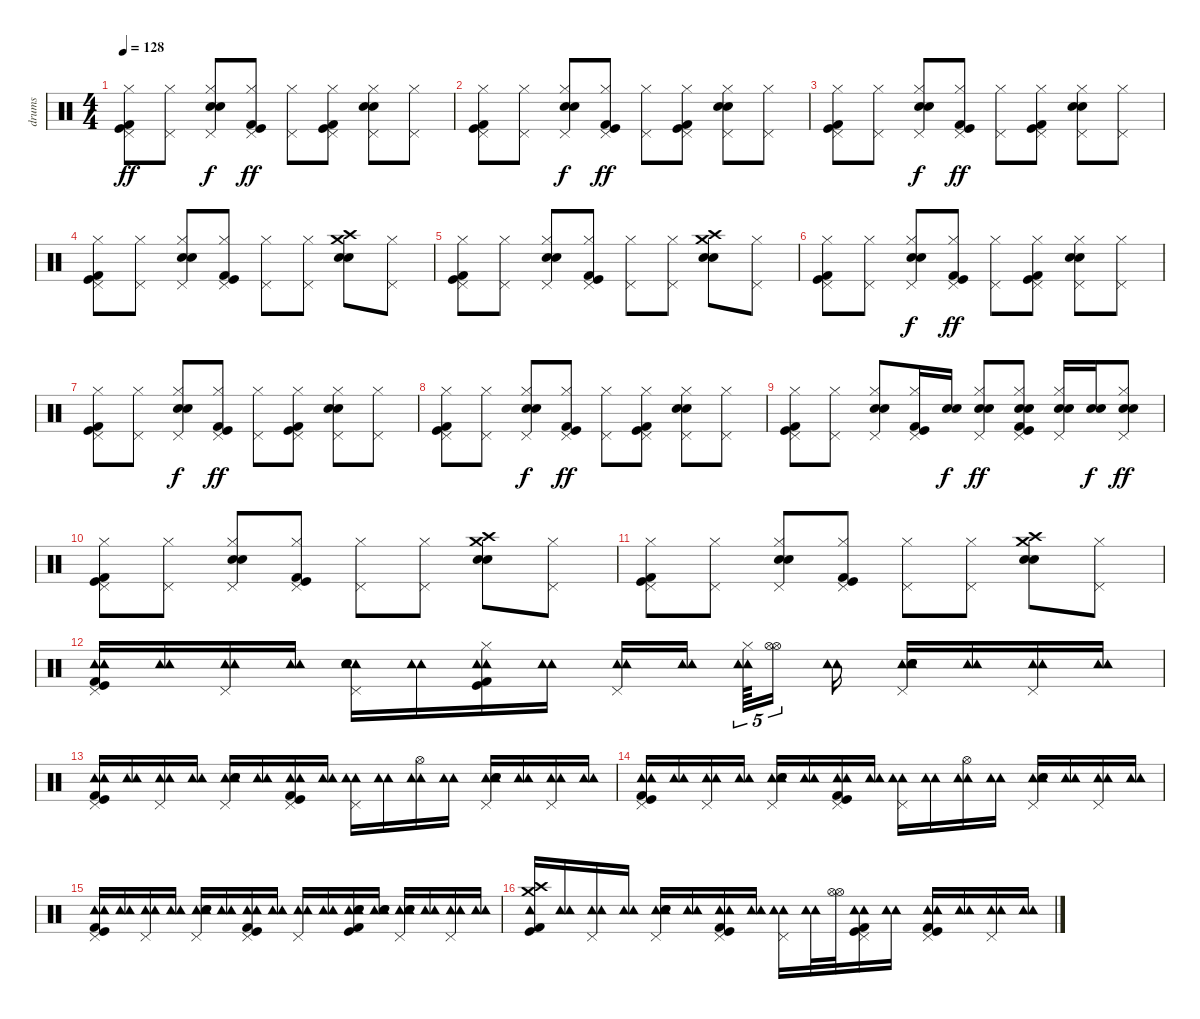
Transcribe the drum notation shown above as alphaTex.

\track ("drums" "drums") {instrument percussion}
\staff {score}
\articulation defaults
\ts (4 4)
\tempo 128
\clef neutral
\ks c
("Pedal Hi-Hat (hit)" "Hi-Hat (closed)" "Kick (hit)" "Kick (hit) 2").8{dy ff} ("Hi-Hat (closed)" "Pedal Hi-Hat (hit)").8 ("Hi-Hat (closed)" "Pedal Hi-Hat (hit)" "Snare (hit) 2" "Snare (hit) 2").8{dy f} ("Pedal Hi-Hat (hit)" "Hi-Hat (closed)" "Kick (hit)" "Kick (hit) 2").8{dy ff} ("Hi-Hat (closed)" "Pedal Hi-Hat (hit)").8 ("Pedal Hi-Hat (hit)" "Hi-Hat (closed)" "Kick (hit)" "Kick (hit) 2").8 ("Pedal Hi-Hat (hit)" "Hi-Hat (closed)" "Snare (hit) 2" "Snare (hit) 2").8 ("Hi-Hat (closed)" "Pedal Hi-Hat (hit)").8 |
("Pedal Hi-Hat (hit)" "Hi-Hat (closed)" "Kick (hit)" "Kick (hit) 2").8 ("Hi-Hat (closed)" "Pedal Hi-Hat (hit)").8 ("Hi-Hat (closed)" "Pedal Hi-Hat (hit)" "Snare (hit) 2" "Snare (hit) 2").8{dy f} ("Pedal Hi-Hat (hit)" "Hi-Hat (closed)" "Kick (hit)" "Kick (hit) 2").8{dy ff} ("Hi-Hat (closed)" "Pedal Hi-Hat (hit)").8 ("Pedal Hi-Hat (hit)" "Hi-Hat (closed)" "Kick (hit)" "Kick (hit) 2").8 ("Pedal Hi-Hat (hit)" "Hi-Hat (closed)" "Snare (hit) 2" "Snare (hit) 2").8 ("Hi-Hat (closed)" "Pedal Hi-Hat (hit)").8 |
("Pedal Hi-Hat (hit)" "Hi-Hat (closed)" "Kick (hit)" "Kick (hit) 2").8 ("Hi-Hat (closed)" "Pedal Hi-Hat (hit)").8 ("Hi-Hat (closed)" "Pedal Hi-Hat (hit)" "Snare (hit) 2" "Snare (hit) 2").8{dy f} ("Pedal Hi-Hat (hit)" "Hi-Hat (closed)" "Kick (hit)" "Kick (hit) 2").8{dy ff} ("Hi-Hat (closed)" "Pedal Hi-Hat (hit)").8 ("Pedal Hi-Hat (hit)" "Hi-Hat (closed)" "Kick (hit)" "Kick (hit) 2").8 ("Pedal Hi-Hat (hit)" "Hi-Hat (closed)" "Snare (hit) 2" "Snare (hit) 2").8 ("Hi-Hat (closed)" "Pedal Hi-Hat (hit)").8 |
("Hi-Hat (closed)" "Pedal Hi-Hat (hit)" "Kick (hit)" "Kick (hit) 2").8 ("Hi-Hat (closed)" "Pedal Hi-Hat (hit)").8 ("Pedal Hi-Hat (hit)" "Hi-Hat (closed)" "Snare (hit) 2" "Snare (hit) 2").8 ("Pedal Hi-Hat (hit)" "Hi-Hat (closed)" "Kick (hit)" "Kick (hit) 2").8 ("Hi-Hat (closed)" "Pedal Hi-Hat (hit)").8 ("Hi-Hat (closed)" "Pedal Hi-Hat (hit)").8 ("Crash medium (hit)" "Crash high (hit)" "Snare (hit) 2" "Snare (hit) 2").8 ("Hi-Hat (closed)" "Pedal Hi-Hat (hit)").8 |
("Hi-Hat (closed)" "Pedal Hi-Hat (hit)" "Kick (hit)" "Kick (hit) 2").8 ("Hi-Hat (closed)" "Pedal Hi-Hat (hit)").8 ("Hi-Hat (closed)" "Pedal Hi-Hat (hit)" "Snare (hit) 2" "Snare (hit) 2").8 ("Pedal Hi-Hat (hit)" "Hi-Hat (closed)" "Kick (hit)" "Kick (hit) 2").8 ("Hi-Hat (closed)" "Pedal Hi-Hat (hit)").8 ("Hi-Hat (closed)" "Pedal Hi-Hat (hit)").8 ("Crash medium (hit)" "Crash high (hit)" "Snare (hit) 2" "Snare (hit) 2").8 ("Hi-Hat (closed)" "Pedal Hi-Hat (hit)").8 |
("Pedal Hi-Hat (hit)" "Hi-Hat (closed)" "Kick (hit)" "Kick (hit) 2").8 ("Hi-Hat (closed)" "Pedal Hi-Hat (hit)").8 ("Hi-Hat (closed)" "Pedal Hi-Hat (hit)" "Snare (hit) 2" "Snare (hit) 2").8{dy f} ("Pedal Hi-Hat (hit)" "Hi-Hat (closed)" "Kick (hit)" "Kick (hit) 2").8{dy ff} ("Hi-Hat (closed)" "Pedal Hi-Hat (hit)").8 ("Pedal Hi-Hat (hit)" "Hi-Hat (closed)" "Kick (hit)" "Kick (hit) 2").8 ("Pedal Hi-Hat (hit)" "Hi-Hat (closed)" "Snare (hit) 2" "Snare (hit) 2").8 ("Hi-Hat (closed)" "Pedal Hi-Hat (hit)").8 |
("Pedal Hi-Hat (hit)" "Hi-Hat (closed)" "Kick (hit)" "Kick (hit) 2").8 ("Hi-Hat (closed)" "Pedal Hi-Hat (hit)").8 ("Hi-Hat (closed)" "Pedal Hi-Hat (hit)" "Snare (hit) 2" "Snare (hit) 2").8{dy f} ("Pedal Hi-Hat (hit)" "Hi-Hat (closed)" "Kick (hit)" "Kick (hit) 2").8{dy ff} ("Hi-Hat (closed)" "Pedal Hi-Hat (hit)").8 ("Pedal Hi-Hat (hit)" "Hi-Hat (closed)" "Kick (hit)" "Kick (hit) 2").8 ("Pedal Hi-Hat (hit)" "Hi-Hat (closed)" "Snare (hit) 2" "Snare (hit) 2").8 ("Hi-Hat (closed)" "Pedal Hi-Hat (hit)").8 |
("Pedal Hi-Hat (hit)" "Hi-Hat (closed)" "Kick (hit)" "Kick (hit) 2").8 ("Hi-Hat (closed)" "Pedal Hi-Hat (hit)").8 ("Hi-Hat (closed)" "Pedal Hi-Hat (hit)" "Snare (hit) 2" "Snare (hit) 2").8{dy f} ("Pedal Hi-Hat (hit)" "Hi-Hat (closed)" "Kick (hit)" "Kick (hit) 2").8{dy ff} ("Hi-Hat (closed)" "Pedal Hi-Hat (hit)").8 ("Pedal Hi-Hat (hit)" "Hi-Hat (closed)" "Kick (hit)" "Kick (hit) 2").8 ("Pedal Hi-Hat (hit)" "Hi-Hat (closed)" "Snare (hit) 2" "Snare (hit) 2").8 ("Hi-Hat (closed)" "Pedal Hi-Hat (hit)").8 |
("Pedal Hi-Hat (hit)" "Hi-Hat (closed)" "Kick (hit)" "Kick (hit) 2").8 ("Hi-Hat (closed)" "Pedal Hi-Hat (hit)").8 ("Pedal Hi-Hat (hit)" "Hi-Hat (closed)" "Snare (hit) 2" "Snare (hit) 2").8 ("Pedal Hi-Hat (hit)" "Hi-Hat (closed)" "Kick (hit)" "Kick (hit) 2").16 ("Snare (hit) 2" "Snare (hit) 2").16{dy f} ("Pedal Hi-Hat (hit)" "Hi-Hat (closed)" "Snare (hit) 2" "Snare (hit) 2").8{dy ff} ("Pedal Hi-Hat (hit)" "Hi-Hat (closed)" "Snare (hit) 2" "Snare (hit) 2" "Kick (hit)" "Kick (hit) 2").8 ("Pedal Hi-Hat (hit)" "Hi-Hat (closed)" "Snare (hit) 2" "Snare (hit) 2").16 ("Snare (hit) 2" "Snare (hit) 2").16{dy f} ("Hi-Hat (closed)" "Pedal Hi-Hat (hit)" "Snare (hit) 2" "Snare (hit) 2").8{dy ff} |
("Pedal Hi-Hat (hit)" "Hi-Hat (closed)" "Kick (hit)" "Kick (hit) 2").8 ("Hi-Hat (closed)" "Pedal Hi-Hat (hit)").8 ("Pedal Hi-Hat (hit)" "Hi-Hat (closed)" "Snare (hit) 2" "Snare (hit) 2").8 ("Pedal Hi-Hat (hit)" "Hi-Hat (closed)" "Kick (hit)" "Kick (hit) 2").8 ("Hi-Hat (closed)" "Pedal Hi-Hat (hit)").8 ("Hi-Hat (closed)" "Pedal Hi-Hat (hit)").8 ("Crash medium (hit)" "Crash high (hit)" "Snare (hit) 2" "Snare (hit) 2").8 ("Hi-Hat (closed)" "Pedal Hi-Hat (hit)").8 |
("Hi-Hat (closed)" "Pedal Hi-Hat (hit)" "Kick (hit)" "Kick (hit) 2").8 ("Hi-Hat (closed)" "Pedal Hi-Hat (hit)").8 ("Pedal Hi-Hat (hit)" "Hi-Hat (closed)" "Snare (hit) 2" "Snare (hit) 2").8 ("Pedal Hi-Hat (hit)" "Hi-Hat (closed)" "Kick (hit)" "Kick (hit) 2").8 ("Hi-Hat (closed)" "Pedal Hi-Hat (hit)").8 ("Hi-Hat (closed)" "Pedal Hi-Hat (hit)").8 ("Crash medium (hit)" "Crash high (hit)" "Snare (hit) 2" "Snare (hit) 2").8 ("Hi-Hat (closed)" "Pedal Hi-Hat (hit)").8 |
("Tambourine (hit)" "Tambourine (hit)" "Pedal Hi-Hat (hit)" "Kick (hit)" "Kick (hit) 2").16 ("Tambourine (hit)" "Tambourine (hit)").16 ("Tambourine (hit)" "Tambourine (hit)" "Pedal Hi-Hat (hit)").16 ("Tambourine (hit)" "Tambourine (hit)").16 ("Tambourine (hit)" "Tambourine (hit)" "Pedal Hi-Hat (hit)" "Snare (hit) 2" "Snare (hit) 2").16 ("Tambourine (hit)" "Tambourine (hit)").16 ("Tambourine (hit)" "Tambourine (hit)" "Hi-Hat (closed)" "Kick (hit)" "Kick (hit) 2").16 ("Tambourine (hit)" "Tambourine (hit)").16 ("Tambourine (hit)" "Tambourine (hit)" "Pedal Hi-Hat (hit)").16 ("Tambourine (hit)" "Tambourine (hit)").16 ("Tambourine (hit)" "Tambourine (hit)" "Hi-Hat (closed)").64{tu (5 4)} ("Hi-Hat (open)" "Hi-Hat (open)").16{tu (5 4)} ("Tambourine (hit)" "Tambourine (hit)").16 ("Tambourine (hit)" "Tambourine (hit)" "Pedal Hi-Hat (hit)" "Snare (hit) 2" "Snare (hit) 2").16 ("Tambourine (hit)" "Tambourine (hit)").16 ("Tambourine (hit)" "Tambourine (hit)" "Pedal Hi-Hat (hit)").16 ("Tambourine (hit)" "Tambourine (hit)").16 |
("Tambourine (hit)" "Tambourine (hit)" "Pedal Hi-Hat (hit)" "Kick (hit)" "Kick (hit) 2").16 ("Tambourine (hit)" "Tambourine (hit)").16 ("Tambourine (hit)" "Tambourine (hit)" "Pedal Hi-Hat (hit)").16 ("Tambourine (hit)" "Tambourine (hit)").16 ("Tambourine (hit)" "Tambourine (hit)" "Pedal Hi-Hat (hit)" "Snare (hit) 2" "Snare (hit) 2").16 ("Tambourine (hit)" "Tambourine (hit)").16 ("Tambourine (hit)" "Tambourine (hit)" "Pedal Hi-Hat (hit)" "Kick (hit)" "Kick (hit) 2").16 ("Tambourine (hit)" "Tambourine (hit)").16 ("Tambourine (hit)" "Tambourine (hit)" "Pedal Hi-Hat (hit)").16 ("Tambourine (hit)" "Tambourine (hit)").16 ("Tambourine (hit)" "Tambourine (hit)" "Hi-Hat (open)").16 ("Tambourine (hit)" "Tambourine (hit)").16 ("Tambourine (hit)" "Tambourine (hit)" "Pedal Hi-Hat (hit)" "Snare (hit) 2" "Snare (hit) 2").16 ("Tambourine (hit)" "Tambourine (hit)").16 ("Tambourine (hit)" "Tambourine (hit)" "Pedal Hi-Hat (hit)").16 ("Tambourine (hit)" "Tambourine (hit)").16 |
("Tambourine (hit)" "Tambourine (hit)" "Pedal Hi-Hat (hit)" "Kick (hit)" "Kick (hit) 2").16 ("Tambourine (hit)" "Tambourine (hit)").16 ("Tambourine (hit)" "Tambourine (hit)" "Pedal Hi-Hat (hit)").16 ("Tambourine (hit)" "Tambourine (hit)").16 ("Tambourine (hit)" "Tambourine (hit)" "Pedal Hi-Hat (hit)" "Snare (hit) 2" "Snare (hit) 2").16 ("Tambourine (hit)" "Tambourine (hit)").16 ("Tambourine (hit)" "Tambourine (hit)" "Pedal Hi-Hat (hit)" "Kick (hit)" "Kick (hit) 2").16 ("Tambourine (hit)" "Tambourine (hit)").16 ("Tambourine (hit)" "Tambourine (hit)" "Pedal Hi-Hat (hit)").16 ("Tambourine (hit)" "Tambourine (hit)").16 ("Tambourine (hit)" "Tambourine (hit)" "Hi-Hat (open)").16 ("Tambourine (hit)" "Tambourine (hit)").16 ("Tambourine (hit)" "Tambourine (hit)" "Pedal Hi-Hat (hit)" "Snare (hit) 2" "Snare (hit) 2").16 ("Tambourine (hit)" "Tambourine (hit)").16 ("Tambourine (hit)" "Tambourine (hit)" "Pedal Hi-Hat (hit)").16 ("Tambourine (hit)" "Tambourine (hit)").16 |
("Tambourine (hit)" "Tambourine (hit)" "Pedal Hi-Hat (hit)" "Kick (hit)" "Kick (hit) 2").16 ("Tambourine (hit)" "Tambourine (hit)").16 ("Tambourine (hit)" "Tambourine (hit)" "Pedal Hi-Hat (hit)").16 ("Tambourine (hit)" "Tambourine (hit)").16 ("Tambourine (hit)" "Tambourine (hit)" "Pedal Hi-Hat (hit)" "Snare (hit) 2" "Snare (hit) 2").16 ("Tambourine (hit)" "Tambourine (hit)").16 ("Pedal Hi-Hat (hit)" "Tambourine (hit)" "Tambourine (hit)" "Kick (hit)" "Kick (hit) 2").16 ("Tambourine (hit)" "Tambourine (hit)").16 ("Tambourine (hit)" "Tambourine (hit)" "Pedal Hi-Hat (hit)").16 ("Tambourine (hit)" "Tambourine (hit)").16 ("Tambourine (hit)" "Tambourine (hit)" "Snare (hit) 2" "Snare (hit) 2" "Kick (hit)" "Kick (hit) 2").16 ("Tambourine (hit)" "Tambourine (hit)" "Snare (hit) 2" "Snare (hit) 2").16 ("Tambourine (hit)" "Tambourine (hit)" "Pedal Hi-Hat (hit)" "Snare (hit) 2" "Snare (hit) 2").16 ("Tambourine (hit)" "Tambourine (hit)").16 ("Tambourine (hit)" "Tambourine (hit)" "Pedal Hi-Hat (hit)").16 ("Tambourine (hit)" "Tambourine (hit)").16 |
("Crash high (hit)" "Crash medium (hit)" "Tambourine (hit)" "Kick (hit)" "Kick (hit) 2").16 ("Tambourine (hit)" "Tambourine (hit)").16 ("Tambourine (hit)" "Tambourine (hit)" "Pedal Hi-Hat (hit)").16 ("Tambourine (hit)" "Tambourine (hit)").16 ("Tambourine (hit)" "Tambourine (hit)" "Pedal Hi-Hat (hit)" "Snare (hit) 2" "Snare (hit) 2").16 ("Tambourine (hit)" "Tambourine (hit)").16 ("Tambourine (hit)" "Tambourine (hit)" "Pedal Hi-Hat (hit)" "Kick (hit)" "Kick (hit) 2").16 ("Tambourine (hit)" "Tambourine (hit)").16 ("Tambourine (hit)" "Tambourine (hit)" "Pedal Hi-Hat (hit)").16 ("Tambourine (hit)" "Tambourine (hit)").32 ("Hi-Hat (open)" "Hi-Hat (open)").32 ("Tambourine (hit)" "Tambourine (hit)" "Pedal Hi-Hat (hit)" "Kick (hit)" "Kick (hit) 2").16 ("Tambourine (hit)" "Tambourine (hit)").16 ("Tambourine (hit)" "Tambourine (hit)" "Pedal Hi-Hat (hit)" "Kick (hit)" "Kick (hit) 2").16 ("Tambourine (hit)" "Tambourine (hit)").16 ("Tambourine (hit)" "Tambourine (hit)" "Pedal Hi-Hat (hit)").16 ("Tambourine (hit)" "Tambourine (hit)").16
